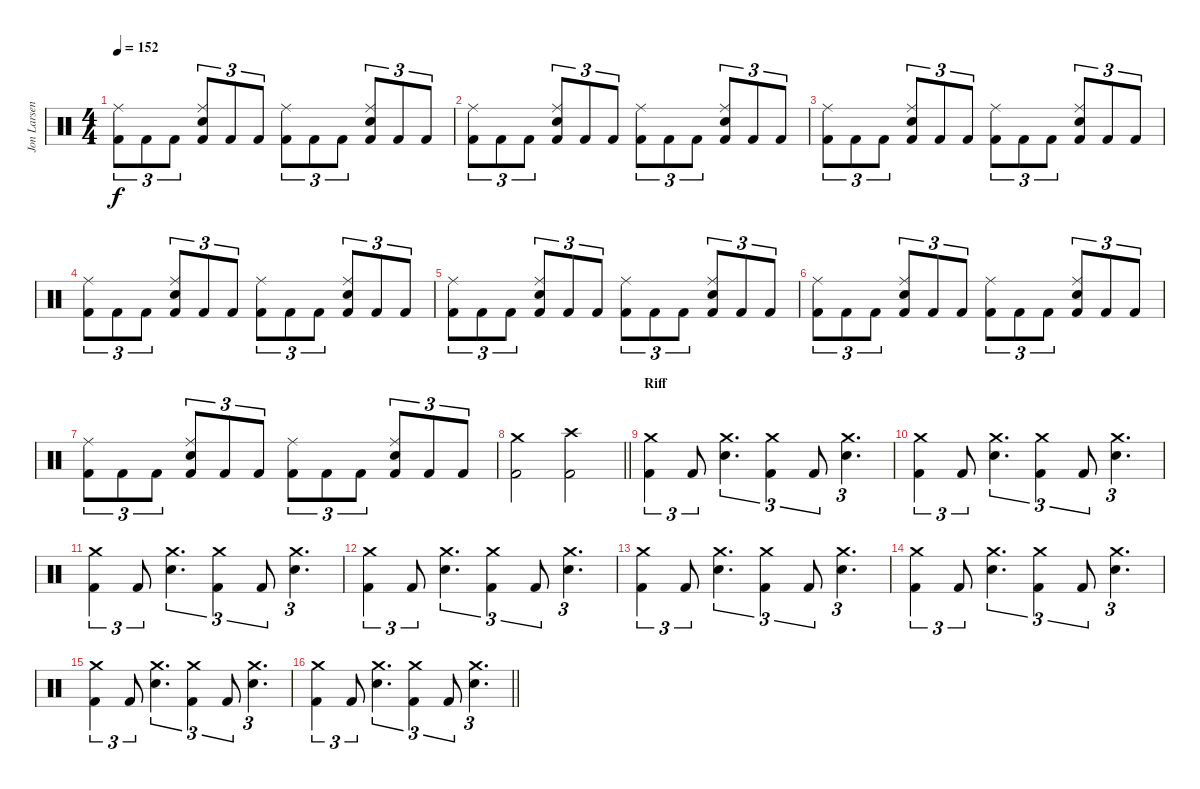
\track ("Jon Larsen" "Jon Larsen") {instrument percussion}
\staff {score}
\articulation defaults
\ts (4 4)
\tempo 152
\clef neutral
\ks c
("Kick (hit) 2" "Ride (middle)").8{tu (3 2) dy f} "Kick (hit) 2".8{tu (3 2)} "Kick (hit) 2".8{tu (3 2)} ("Kick (hit) 2" "Electric Snare (hit)" "Ride (middle)").8{tu (3 2)} "Kick (hit) 2".8{tu (3 2)} "Kick (hit) 2".8{tu (3 2)} ("Kick (hit) 2" "Ride (middle)").8{tu (3 2)} "Kick (hit) 2".8{tu (3 2)} "Kick (hit) 2".8{tu (3 2)} ("Kick (hit) 2" "Electric Snare (hit)" "Ride (middle)").8{tu (3 2)} "Kick (hit) 2".8{tu (3 2)} "Kick (hit) 2".8{tu (3 2)} |
("Kick (hit) 2" "Ride (middle)").8{tu (3 2)} "Kick (hit) 2".8{tu (3 2)} "Kick (hit) 2".8{tu (3 2)} ("Kick (hit) 2" "Electric Snare (hit)" "Ride (middle)").8{tu (3 2)} "Kick (hit) 2".8{tu (3 2)} "Kick (hit) 2".8{tu (3 2)} ("Kick (hit) 2" "Ride (middle)").8{tu (3 2)} "Kick (hit) 2".8{tu (3 2)} "Kick (hit) 2".8{tu (3 2)} ("Kick (hit) 2" "Electric Snare (hit)" "Ride (middle)").8{tu (3 2)} "Kick (hit) 2".8{tu (3 2)} "Kick (hit) 2".8{tu (3 2)} |
("Kick (hit) 2" "Ride (middle)").8{tu (3 2)} "Kick (hit) 2".8{tu (3 2)} "Kick (hit) 2".8{tu (3 2)} ("Kick (hit) 2" "Electric Snare (hit)" "Ride (middle)").8{tu (3 2)} "Kick (hit) 2".8{tu (3 2)} "Kick (hit) 2".8{tu (3 2)} ("Kick (hit) 2" "Ride (middle)").8{tu (3 2)} "Kick (hit) 2".8{tu (3 2)} "Kick (hit) 2".8{tu (3 2)} ("Kick (hit) 2" "Electric Snare (hit)" "Ride (middle)").8{tu (3 2)} "Kick (hit) 2".8{tu (3 2)} "Kick (hit) 2".8{tu (3 2)} |
("Kick (hit) 2" "Ride (middle)").8{tu (3 2)} "Kick (hit) 2".8{tu (3 2)} "Kick (hit) 2".8{tu (3 2)} ("Kick (hit) 2" "Electric Snare (hit)" "Ride (middle)").8{tu (3 2)} "Kick (hit) 2".8{tu (3 2)} "Kick (hit) 2".8{tu (3 2)} ("Kick (hit) 2" "Ride (middle)").8{tu (3 2)} "Kick (hit) 2".8{tu (3 2)} "Kick (hit) 2".8{tu (3 2)} ("Kick (hit) 2" "Electric Snare (hit)" "Ride (middle)").8{tu (3 2)} "Kick (hit) 2".8{tu (3 2)} "Kick (hit) 2".8{tu (3 2)} |
("Kick (hit) 2" "Ride (middle)").8{tu (3 2)} "Kick (hit) 2".8{tu (3 2)} "Kick (hit) 2".8{tu (3 2)} ("Kick (hit) 2" "Electric Snare (hit)" "Ride (middle)").8{tu (3 2)} "Kick (hit) 2".8{tu (3 2)} "Kick (hit) 2".8{tu (3 2)} ("Kick (hit) 2" "Ride (middle)").8{tu (3 2)} "Kick (hit) 2".8{tu (3 2)} "Kick (hit) 2".8{tu (3 2)} ("Kick (hit) 2" "Electric Snare (hit)" "Ride (middle)").8{tu (3 2)} "Kick (hit) 2".8{tu (3 2)} "Kick (hit) 2".8{tu (3 2)} |
("Kick (hit) 2" "Ride (middle)").8{tu (3 2)} "Kick (hit) 2".8{tu (3 2)} "Kick (hit) 2".8{tu (3 2)} ("Kick (hit) 2" "Electric Snare (hit)" "Ride (middle)").8{tu (3 2)} "Kick (hit) 2".8{tu (3 2)} "Kick (hit) 2".8{tu (3 2)} ("Kick (hit) 2" "Ride (middle)").8{tu (3 2)} "Kick (hit) 2".8{tu (3 2)} "Kick (hit) 2".8{tu (3 2)} ("Kick (hit) 2" "Electric Snare (hit)" "Ride (middle)").8{tu (3 2)} "Kick (hit) 2".8{tu (3 2)} "Kick (hit) 2".8{tu (3 2)} |
("Kick (hit) 2" "Ride (middle)").8{tu (3 2)} "Kick (hit) 2".8{tu (3 2)} "Kick (hit) 2".8{tu (3 2)} ("Kick (hit) 2" "Electric Snare (hit)" "Ride (middle)").8{tu (3 2)} "Kick (hit) 2".8{tu (3 2)} "Kick (hit) 2".8{tu (3 2)} ("Kick (hit) 2" "Ride (middle)").8{tu (3 2)} "Kick (hit) 2".8{tu (3 2)} "Kick (hit) 2".8{tu (3 2)} ("Kick (hit) 2" "Electric Snare (hit)" "Ride (middle)").8{tu (3 2)} "Kick (hit) 2".8{tu (3 2)} "Kick (hit) 2".8{tu (3 2)} |
\barLineRight lightlight
("Crash medium (hit)" "Kick (hit) 2").2 ("Crash high (hit)" "Kick (hit) 2").2 |
\section ("" "Riff")
("Kick (hit) 2" "Crash medium (hit)").4{tu (3 2)} "Kick (hit) 2".8{tu (3 2)} ("Electric Snare (hit)" "Crash medium (hit)").4{d tu (3 2)} ("Kick (hit) 2" "Crash medium (hit)").4{tu (3 2)} "Kick (hit) 2".8{tu (3 2)} ("Electric Snare (hit)" "Crash medium (hit)").4{d tu (3 2)} |
("Kick (hit) 2" "Crash medium (hit)").4{tu (3 2)} "Kick (hit) 2".8{tu (3 2)} ("Electric Snare (hit)" "Crash medium (hit)").4{d tu (3 2)} ("Kick (hit) 2" "Crash medium (hit)").4{tu (3 2)} "Kick (hit) 2".8{tu (3 2)} ("Electric Snare (hit)" "Crash medium (hit)").4{d tu (3 2)} |
("Kick (hit) 2" "Crash medium (hit)").4{tu (3 2)} "Kick (hit) 2".8{tu (3 2)} ("Electric Snare (hit)" "Crash medium (hit)").4{d tu (3 2)} ("Kick (hit) 2" "Crash medium (hit)").4{tu (3 2)} "Kick (hit) 2".8{tu (3 2)} ("Electric Snare (hit)" "Crash medium (hit)").4{d tu (3 2)} |
("Kick (hit) 2" "Crash medium (hit)").4{tu (3 2)} "Kick (hit) 2".8{tu (3 2)} ("Electric Snare (hit)" "Crash medium (hit)").4{d tu (3 2)} ("Kick (hit) 2" "Crash medium (hit)").4{tu (3 2)} "Kick (hit) 2".8{tu (3 2)} ("Electric Snare (hit)" "Crash medium (hit)").4{d tu (3 2)} |
("Kick (hit) 2" "Crash medium (hit)").4{tu (3 2)} "Kick (hit) 2".8{tu (3 2)} ("Electric Snare (hit)" "Crash medium (hit)").4{d tu (3 2)} ("Kick (hit) 2" "Crash medium (hit)").4{tu (3 2)} "Kick (hit) 2".8{tu (3 2)} ("Electric Snare (hit)" "Crash medium (hit)").4{d tu (3 2)} |
("Kick (hit) 2" "Crash medium (hit)").4{tu (3 2)} "Kick (hit) 2".8{tu (3 2)} ("Electric Snare (hit)" "Crash medium (hit)").4{d tu (3 2)} ("Kick (hit) 2" "Crash medium (hit)").4{tu (3 2)} "Kick (hit) 2".8{tu (3 2)} ("Electric Snare (hit)" "Crash medium (hit)").4{d tu (3 2)} |
("Kick (hit) 2" "Crash medium (hit)").4{tu (3 2)} "Kick (hit) 2".8{tu (3 2)} ("Electric Snare (hit)" "Crash medium (hit)").4{d tu (3 2)} ("Kick (hit) 2" "Crash medium (hit)").4{tu (3 2)} "Kick (hit) 2".8{tu (3 2)} ("Electric Snare (hit)" "Crash medium (hit)").4{d tu (3 2)} |
\barLineRight lightlight
("Kick (hit) 2" "Crash medium (hit)").4{tu (3 2)} "Kick (hit) 2".8{tu (3 2)} ("Electric Snare (hit)" "Crash medium (hit)").4{d tu (3 2)} ("Kick (hit) 2" "Crash medium (hit)").4{tu (3 2)} "Kick (hit) 2".8{tu (3 2)} ("Electric Snare (hit)" "Crash medium (hit)").4{d tu (3 2)}
